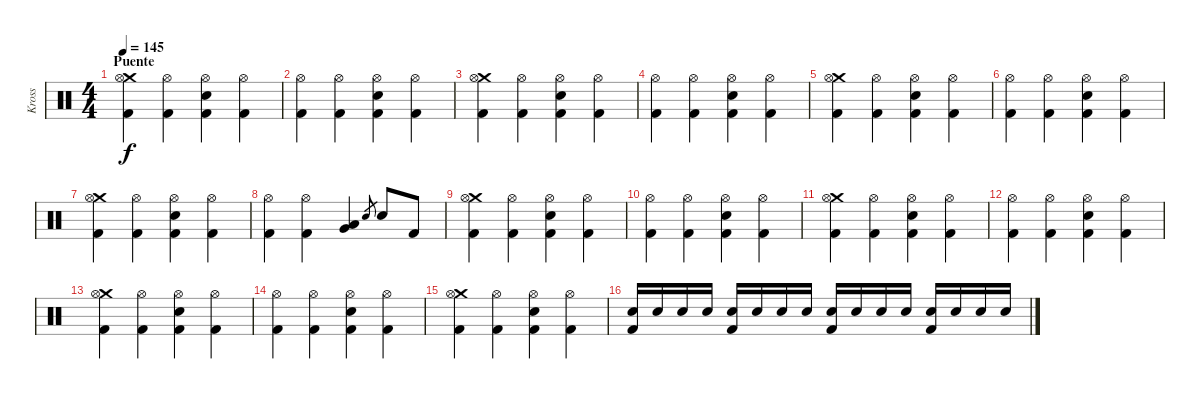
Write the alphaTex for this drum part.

\track ("Kross" "Kross") {instrument percussion}
\staff {score}
\articulation defaults
\ts (4 4)
\section ("" "Puente")
\tempo 145
\clef neutral
\ks c
("Crash medium (hit)" "Hi-Hat (open)" "Kick (hit) 2").4{dy f} ("Hi-Hat (open)" "Kick (hit) 2").4 ("Hi-Hat (open)" "Electric Snare (hit)" "Kick (hit) 2").4 ("Hi-Hat (open)" "Kick (hit) 2").4 |
("Hi-Hat (open)" "Kick (hit) 2").4 ("Hi-Hat (open)" "Kick (hit) 2").4 ("Hi-Hat (open)" "Electric Snare (hit)" "Kick (hit) 2").4 ("Hi-Hat (open)" "Kick (hit) 2").4 |
("Crash medium (hit)" "Hi-Hat (open)" "Kick (hit) 2").4 ("Hi-Hat (open)" "Kick (hit) 2").4 ("Hi-Hat (open)" "Electric Snare (hit)" "Kick (hit) 2").4 ("Hi-Hat (open)" "Kick (hit) 2").4 |
("Hi-Hat (open)" "Kick (hit) 2").4 ("Hi-Hat (open)" "Kick (hit) 2").4 ("Hi-Hat (open)" "Electric Snare (hit)" "Kick (hit) 2").4 ("Hi-Hat (open)" "Kick (hit) 2").4 |
("Crash medium (hit)" "Hi-Hat (open)" "Kick (hit) 2").4 ("Hi-Hat (open)" "Kick (hit) 2").4 ("Hi-Hat (open)" "Electric Snare (hit)" "Kick (hit) 2").4 ("Hi-Hat (open)" "Kick (hit) 2").4 |
("Hi-Hat (open)" "Kick (hit) 2").4 ("Hi-Hat (open)" "Kick (hit) 2").4 ("Hi-Hat (open)" "Electric Snare (hit)" "Kick (hit) 2").4 ("Hi-Hat (open)" "Kick (hit) 2").4 |
("Crash medium (hit)" "Hi-Hat (open)" "Kick (hit) 2").4 ("Hi-Hat (open)" "Kick (hit) 2").4 ("Hi-Hat (open)" "Electric Snare (hit)" "Kick (hit) 2").4 ("Hi-Hat (open)" "Kick (hit) 2").4 |
("Hi-Hat (open)" "Kick (hit) 2").4 ("Hi-Hat (open)" "Kick (hit) 2").4 ("Low Tom (hit)" "Very Low Tom (hit)").4 "Electric Snare (hit)".8{gr} "Electric Snare (hit)".8 "Kick (hit) 2".8 |
("Crash medium (hit)" "Hi-Hat (open)" "Kick (hit) 2").4 ("Hi-Hat (open)" "Kick (hit) 2").4 ("Hi-Hat (open)" "Electric Snare (hit)" "Kick (hit) 2").4 ("Hi-Hat (open)" "Kick (hit) 2").4 |
("Hi-Hat (open)" "Kick (hit) 2").4 ("Hi-Hat (open)" "Kick (hit) 2").4 ("Hi-Hat (open)" "Electric Snare (hit)" "Kick (hit) 2").4 ("Hi-Hat (open)" "Kick (hit) 2").4 |
("Crash medium (hit)" "Hi-Hat (open)" "Kick (hit) 2").4 ("Hi-Hat (open)" "Kick (hit) 2").4 ("Hi-Hat (open)" "Electric Snare (hit)" "Kick (hit) 2").4 ("Hi-Hat (open)" "Kick (hit) 2").4 |
("Hi-Hat (open)" "Kick (hit) 2").4 ("Hi-Hat (open)" "Kick (hit) 2").4 ("Hi-Hat (open)" "Electric Snare (hit)" "Kick (hit) 2").4 ("Hi-Hat (open)" "Kick (hit) 2").4 |
("Crash medium (hit)" "Hi-Hat (open)" "Kick (hit) 2").4 ("Hi-Hat (open)" "Kick (hit) 2").4 ("Hi-Hat (open)" "Electric Snare (hit)" "Kick (hit) 2").4 ("Hi-Hat (open)" "Kick (hit) 2").4 |
("Hi-Hat (open)" "Kick (hit) 2").4 ("Hi-Hat (open)" "Kick (hit) 2").4 ("Hi-Hat (open)" "Electric Snare (hit)" "Kick (hit) 2").4 ("Hi-Hat (open)" "Kick (hit) 2").4 |
("Crash medium (hit)" "Hi-Hat (open)" "Kick (hit) 2").4 ("Hi-Hat (open)" "Kick (hit) 2").4 ("Hi-Hat (open)" "Electric Snare (hit)" "Kick (hit) 2").4 ("Hi-Hat (open)" "Kick (hit) 2").4 |
("Electric Snare (hit)" "Kick (hit) 2").16 "Electric Snare (hit)".16 "Electric Snare (hit)".16 "Electric Snare (hit)".16 ("Electric Snare (hit)" "Kick (hit) 2").16 "Electric Snare (hit)".16 "Electric Snare (hit)".16 "Electric Snare (hit)".16 ("Electric Snare (hit)" "Kick (hit) 2").16 "Electric Snare (hit)".16 "Electric Snare (hit)".16 "Electric Snare (hit)".16 ("Electric Snare (hit)" "Kick (hit) 2").16 "Electric Snare (hit)".16 "Electric Snare (hit)".16 "Electric Snare (hit)".16
